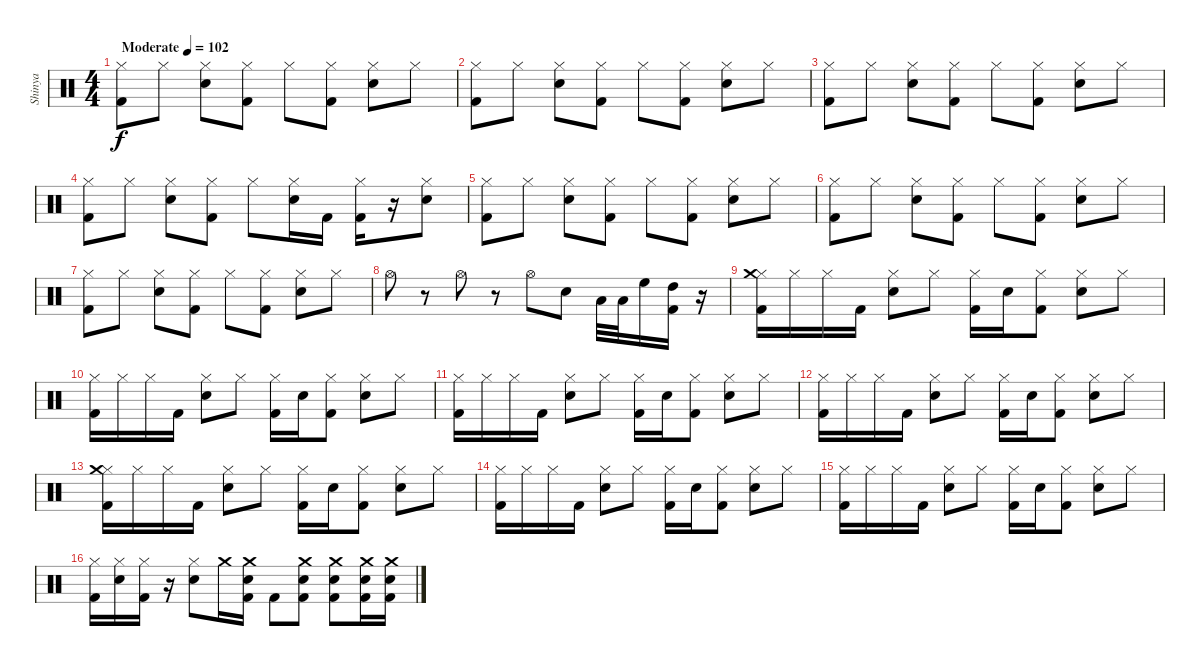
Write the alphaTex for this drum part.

\track ("Shinya" "Shinya") {instrument percussion}
\staff {score}
\articulation defaults
\ts (4 4)
\tempo (102 "Moderate")
\clef neutral
\ks c
("Hi-Hat (closed)" "Kick (hit) 2").8{dy f} "Hi-Hat (closed)".8 ("Hi-Hat (closed)" "Electric Snare (hit)").8 ("Hi-Hat (closed)" "Kick (hit) 2").8 "Hi-Hat (closed)".8 ("Hi-Hat (closed)" "Kick (hit) 2").8 ("Hi-Hat (closed)" "Electric Snare (hit)").8 "Hi-Hat (closed)".8 |
("Hi-Hat (closed)" "Kick (hit) 2").8 "Hi-Hat (closed)".8 ("Hi-Hat (closed)" "Electric Snare (hit)").8 ("Hi-Hat (closed)" "Kick (hit) 2").8 "Hi-Hat (closed)".8 ("Hi-Hat (closed)" "Kick (hit) 2").8 ("Hi-Hat (closed)" "Electric Snare (hit)").8 "Hi-Hat (closed)".8 |
("Hi-Hat (closed)" "Kick (hit) 2").8 "Hi-Hat (closed)".8 ("Hi-Hat (closed)" "Electric Snare (hit)").8 ("Hi-Hat (closed)" "Kick (hit) 2").8 "Hi-Hat (closed)".8 ("Hi-Hat (closed)" "Kick (hit) 2").8 ("Hi-Hat (closed)" "Electric Snare (hit)").8 "Hi-Hat (closed)".8 |
("Hi-Hat (closed)" "Kick (hit) 2").8 "Hi-Hat (closed)".8 ("Hi-Hat (closed)" "Electric Snare (hit)").8 ("Hi-Hat (closed)" "Kick (hit) 2").8 "Hi-Hat (closed)".8 ("Hi-Hat (closed)" "Electric Snare (hit)").16 "Kick (hit) 2".16 ("Hi-Hat (closed)" "Kick (hit) 2").16 r.16 ("Hi-Hat (closed)" "Electric Snare (hit)").8 |
("Hi-Hat (closed)" "Kick (hit) 2").8 "Hi-Hat (closed)".8 ("Hi-Hat (closed)" "Electric Snare (hit)").8 ("Hi-Hat (closed)" "Kick (hit) 2").8 "Hi-Hat (closed)".8 ("Hi-Hat (closed)" "Kick (hit) 2").8 ("Hi-Hat (closed)" "Electric Snare (hit)").8 "Hi-Hat (closed)".8 |
("Hi-Hat (closed)" "Kick (hit) 2").8 "Hi-Hat (closed)".8 ("Hi-Hat (closed)" "Electric Snare (hit)").8 ("Hi-Hat (closed)" "Kick (hit) 2").8 "Hi-Hat (closed)".8 ("Hi-Hat (closed)" "Kick (hit) 2").8 ("Hi-Hat (closed)" "Electric Snare (hit)").8 "Hi-Hat (closed)".8 |
("Hi-Hat (closed)" "Kick (hit) 2").8 "Hi-Hat (closed)".8 ("Hi-Hat (closed)" "Electric Snare (hit)").8 ("Hi-Hat (closed)" "Kick (hit) 2").8 "Hi-Hat (closed)".8 ("Hi-Hat (closed)" "Kick (hit) 2").8 ("Hi-Hat (closed)" "Electric Snare (hit)").8 "Hi-Hat (closed)".8 |
"Hi-Hat (open)".8 r.8 "Hi-Hat (open)".8 r.8 "Hi-Hat (open)".8 "Electric Snare (hit)".8 "Low Tom (hit)".32 "Low Tom (hit)".32 "High Floor Tom (hit)".16 ("High Tom (hit)" "Kick (hit) 2").16 r.16 |
("Hi-Hat (closed)" "Crash medium (hit)" "Kick (hit) 2").16 "Hi-Hat (closed)".16 "Hi-Hat (closed)".16 "Kick (hit) 2".16 ("Hi-Hat (closed)" "Electric Snare (hit)").8 "Hi-Hat (closed)".8 ("Hi-Hat (closed)" "Kick (hit) 2").16 "Electric Snare (hit)".16 ("Hi-Hat (closed)" "Kick (hit) 2").8 ("Hi-Hat (closed)" "Electric Snare (hit)").8 "Hi-Hat (closed)".8 |
("Hi-Hat (closed)" "Kick (hit) 2").16 "Hi-Hat (closed)".16 "Hi-Hat (closed)".16 "Kick (hit) 2".16 ("Hi-Hat (closed)" "Electric Snare (hit)").8 "Hi-Hat (closed)".8 ("Hi-Hat (closed)" "Kick (hit) 2").16 "Electric Snare (hit)".16 ("Hi-Hat (closed)" "Kick (hit) 2").8 ("Hi-Hat (closed)" "Electric Snare (hit)").8 "Hi-Hat (closed)".8 |
("Hi-Hat (closed)" "Kick (hit) 2").16 "Hi-Hat (closed)".16 "Hi-Hat (closed)".16 "Kick (hit) 2".16 ("Hi-Hat (closed)" "Electric Snare (hit)").8 "Hi-Hat (closed)".8 ("Hi-Hat (closed)" "Kick (hit) 2").16 "Electric Snare (hit)".16 ("Hi-Hat (closed)" "Kick (hit) 2").8 ("Hi-Hat (closed)" "Electric Snare (hit)").8 "Hi-Hat (closed)".8 |
("Hi-Hat (closed)" "Kick (hit) 2").16 "Hi-Hat (closed)".16 "Hi-Hat (closed)".16 "Kick (hit) 2".16 ("Hi-Hat (closed)" "Electric Snare (hit)").8 "Hi-Hat (closed)".8 ("Hi-Hat (closed)" "Kick (hit) 2").16 "Electric Snare (hit)".16 ("Hi-Hat (closed)" "Kick (hit) 2").8 ("Hi-Hat (closed)" "Electric Snare (hit)").8 "Hi-Hat (closed)".8 |
("Hi-Hat (closed)" "Crash medium (hit)" "Kick (hit) 2").16 "Hi-Hat (closed)".16 "Hi-Hat (closed)".16 "Kick (hit) 2".16 ("Hi-Hat (closed)" "Electric Snare (hit)").8 "Hi-Hat (closed)".8 ("Hi-Hat (closed)" "Kick (hit) 2").16 "Electric Snare (hit)".16 ("Hi-Hat (closed)" "Kick (hit) 2").8 ("Hi-Hat (closed)" "Electric Snare (hit)").8 "Hi-Hat (closed)".8 |
("Hi-Hat (closed)" "Kick (hit) 2").16 "Hi-Hat (closed)".16 "Hi-Hat (closed)".16 "Kick (hit) 2".16 ("Hi-Hat (closed)" "Electric Snare (hit)").8 "Hi-Hat (closed)".8 ("Hi-Hat (closed)" "Kick (hit) 2").16 "Electric Snare (hit)".16 ("Hi-Hat (closed)" "Kick (hit) 2").8 ("Hi-Hat (closed)" "Electric Snare (hit)").8 "Hi-Hat (closed)".8 |
("Hi-Hat (closed)" "Kick (hit) 2").16 "Hi-Hat (closed)".16 "Hi-Hat (closed)".16 "Kick (hit) 2".16 ("Hi-Hat (closed)" "Electric Snare (hit)").8 "Hi-Hat (closed)".8 ("Hi-Hat (closed)" "Kick (hit) 2").16 "Electric Snare (hit)".16 ("Hi-Hat (closed)" "Kick (hit) 2").8 ("Hi-Hat (closed)" "Electric Snare (hit)").8 "Hi-Hat (closed)".8 |
("Hi-Hat (closed)" "Kick (hit) 2").16 ("Hi-Hat (closed)" "Electric Snare (hit)").16 ("Hi-Hat (closed)" "Kick (hit) 2").16 r.16 ("Hi-Hat (closed)" "Electric Snare (hit)").8 "Crash medium (hit)".16 ("Crash medium (hit)" "Electric Snare (hit)" "Kick (hit) 2").16 "Kick (hit) 2".8 ("Crash medium (hit)" "Electric Snare (hit)" "Kick (hit) 2").8 ("Crash medium (hit)" "Electric Snare (hit)" "Kick (hit) 2").8 ("Crash medium (hit)" "Electric Snare (hit)" "Kick (hit) 2").16 ("Crash medium (hit)" "Electric Snare (hit)" "Kick (hit) 2").16
